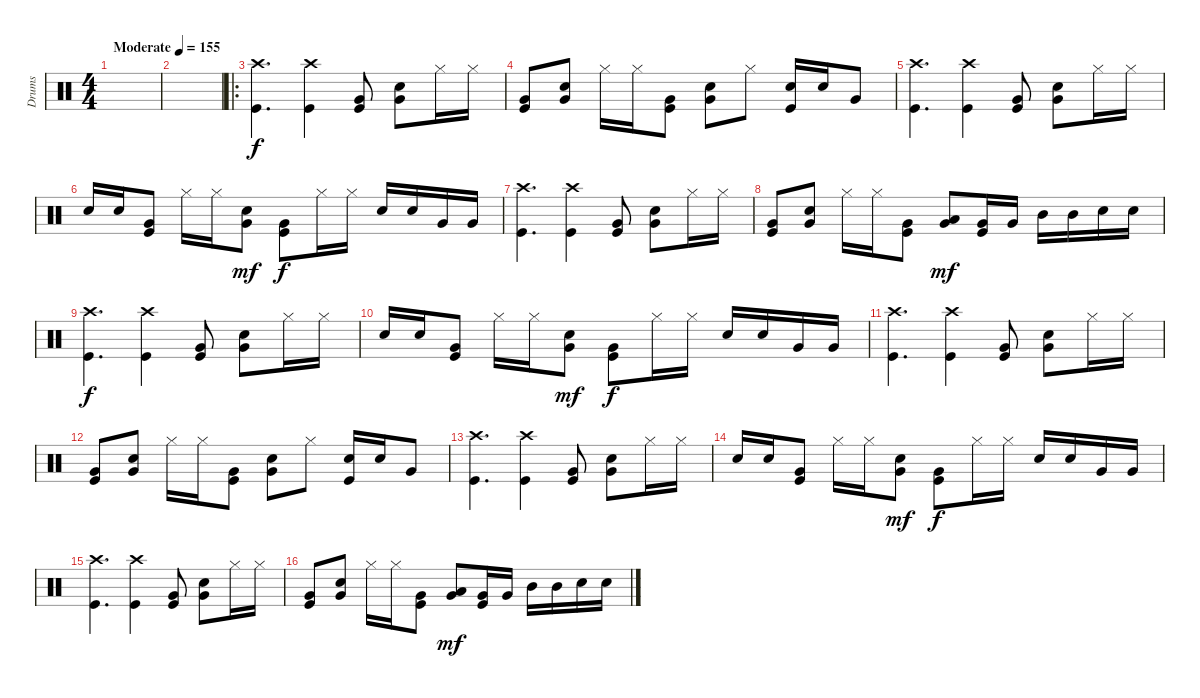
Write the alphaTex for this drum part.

\track ("Drums" "Drums") {instrument percussion}
\staff {score}
\articulation defaults
\ts (4 4)
\tempo (155 "Moderate")
\clef neutral
\ks c
|
|
\ro
("Crash high (hit)" "Kick (hit)").4{d} ("Crash high (hit)" "Kick (hit)").4 ("Kick (hit)" "Very Low Tom (hit)").8 ("Snare (hit) 2" "Very Low Tom (hit)").8 "Hi-Hat (closed)".16 "Hi-Hat (closed)".16 |
("Very Low Tom (hit)" "Kick (hit)").8 ("Snare (hit) 2" "Very Low Tom (hit)").8 "Hi-Hat (closed)".16 "Hi-Hat (closed)".16 ("Very Low Tom (hit)" "Kick (hit)").8 ("Snare (hit) 2" "Very Low Tom (hit)").8 "Hi-Hat (closed)".8 ("Snare (hit) 2" "Kick (hit)").16 "Snare (hit) 2".16 "Very Low Tom (hit)".8 |
("Crash high (hit)" "Kick (hit)").4{d} ("Crash high (hit)" "Kick (hit)").4 ("Kick (hit)" "Very Low Tom (hit)").8 ("Snare (hit) 2" "Very Low Tom (hit)").8 "Hi-Hat (closed)".16 "Hi-Hat (closed)".16 |
"Snare (hit) 2".16 "Snare (hit) 2".16 ("Kick (hit)" "Very Low Tom (hit)").8 "Hi-Hat (closed)".16 "Hi-Hat (closed)".16 ("Snare (hit) 2" "Very Low Tom (hit)").8{dy mf} ("Kick (hit)" "Very Low Tom (hit)").8{dy f} "Hi-Hat (closed)".16 "Hi-Hat (closed)".16 "Snare (hit) 2".16 "Snare (hit) 2".16 "Very Low Tom (hit)".16 "Very Low Tom (hit)".16 |
("Crash high (hit)" "Kick (hit)").4{d} ("Crash high (hit)" "Kick (hit)").4 ("Kick (hit)" "Very Low Tom (hit)").8 ("Snare (hit) 2" "Very Low Tom (hit)").8 "Hi-Hat (closed)".16 "Hi-Hat (closed)".16 |
("Very Low Tom (hit)" "Kick (hit)").8 ("Snare (hit) 2" "Very Low Tom (hit)").8 "Hi-Hat (closed)".16 "Hi-Hat (closed)".16 ("Very Low Tom (hit)" "Kick (hit)").8 ("Low Tom (hit)" "Very Low Tom (hit)").8{dy mf} ("Kick (hit)" "Very Low Tom (hit)").16 "Very Low Tom (hit)".16 "Mid Tom (hit)".16 "Mid Tom (hit)".16 "Snare (hit) 2".16 "Snare (hit) 2".16 |
("Crash high (hit)" "Kick (hit)").4{d dy f} ("Crash high (hit)" "Kick (hit)").4 ("Kick (hit)" "Very Low Tom (hit)").8 ("Snare (hit) 2" "Very Low Tom (hit)").8 "Hi-Hat (closed)".16 "Hi-Hat (closed)".16 |
"Snare (hit) 2".16 "Snare (hit) 2".16 ("Kick (hit)" "Very Low Tom (hit)").8 "Hi-Hat (closed)".16 "Hi-Hat (closed)".16 ("Snare (hit) 2" "Very Low Tom (hit)").8{dy mf} ("Kick (hit)" "Very Low Tom (hit)").8{dy f} "Hi-Hat (closed)".16 "Hi-Hat (closed)".16 "Snare (hit) 2".16 "Snare (hit) 2".16 "Very Low Tom (hit)".16 "Very Low Tom (hit)".16 |
("Crash high (hit)" "Kick (hit)").4{d} ("Crash high (hit)" "Kick (hit)").4 ("Kick (hit)" "Very Low Tom (hit)").8 ("Snare (hit) 2" "Very Low Tom (hit)").8 "Hi-Hat (closed)".16 "Hi-Hat (closed)".16 |
("Very Low Tom (hit)" "Kick (hit)").8 ("Snare (hit) 2" "Very Low Tom (hit)").8 "Hi-Hat (closed)".16 "Hi-Hat (closed)".16 ("Very Low Tom (hit)" "Kick (hit)").8 ("Snare (hit) 2" "Very Low Tom (hit)").8 "Hi-Hat (closed)".8 ("Snare (hit) 2" "Kick (hit)").16 "Snare (hit) 2".16 "Very Low Tom (hit)".8 |
("Crash high (hit)" "Kick (hit)").4{d} ("Crash high (hit)" "Kick (hit)").4 ("Kick (hit)" "Very Low Tom (hit)").8 ("Snare (hit) 2" "Very Low Tom (hit)").8 "Hi-Hat (closed)".16 "Hi-Hat (closed)".16 |
"Snare (hit) 2".16 "Snare (hit) 2".16 ("Kick (hit)" "Very Low Tom (hit)").8 "Hi-Hat (closed)".16 "Hi-Hat (closed)".16 ("Snare (hit) 2" "Very Low Tom (hit)").8{dy mf} ("Kick (hit)" "Very Low Tom (hit)").8{dy f} "Hi-Hat (closed)".16 "Hi-Hat (closed)".16 "Snare (hit) 2".16 "Snare (hit) 2".16 "Very Low Tom (hit)".16 "Very Low Tom (hit)".16 |
("Crash high (hit)" "Kick (hit)").4{d} ("Crash high (hit)" "Kick (hit)").4 ("Kick (hit)" "Very Low Tom (hit)").8 ("Snare (hit) 2" "Very Low Tom (hit)").8 "Hi-Hat (closed)".16 "Hi-Hat (closed)".16 |
("Very Low Tom (hit)" "Kick (hit)").8 ("Snare (hit) 2" "Very Low Tom (hit)").8 "Hi-Hat (closed)".16 "Hi-Hat (closed)".16 ("Very Low Tom (hit)" "Kick (hit)").8 ("Low Tom (hit)" "Very Low Tom (hit)").8{dy mf} ("Kick (hit)" "Very Low Tom (hit)").16 "Very Low Tom (hit)".16 "Mid Tom (hit)".16 "Mid Tom (hit)".16 "Snare (hit) 2".16 "Snare (hit) 2".16
